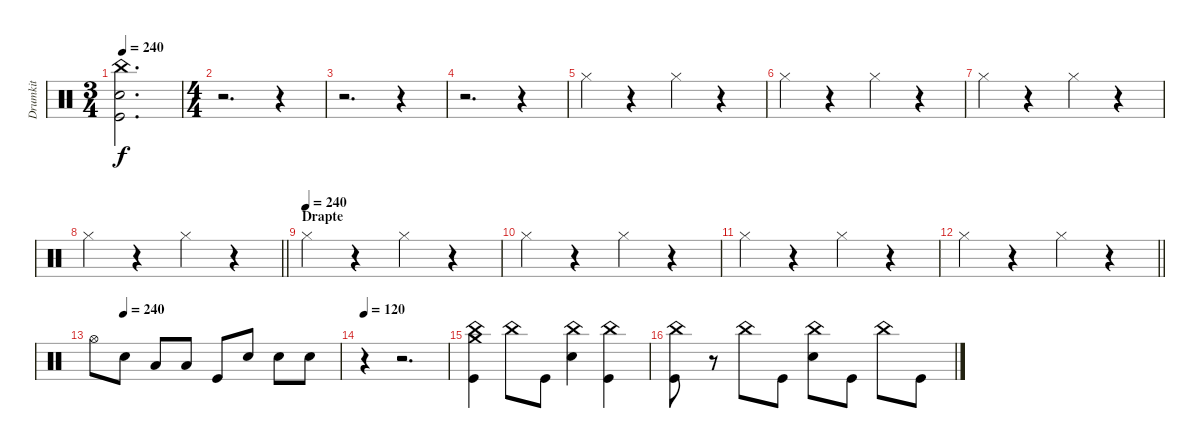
\track ("Drumkit" "Drumkit") {instrument percussion}
\staff {score}
\articulation defaults
\ts (3 4)
\tempo 240
\clef neutral
\ks c
("China (hit)" "Snare (hit) 2" "Kick (hit)").2{d dy f} |
\ts (4 4)
r.2{d} r.4 |
r.2{d} r.4 |
r.2{d} r.4 |
"Hi-Hat (closed)".4 r.4 "Hi-Hat (closed)".4 r.4 |
"Hi-Hat (closed)".4 r.4 "Hi-Hat (closed)".4 r.4 |
"Hi-Hat (closed)".4 r.4 "Hi-Hat (closed)".4 r.4 |
\barLineRight lightlight "Hi-Hat (closed)".4
r.4 "Hi-Hat (closed)".4 r.4 |
\section ("" "Drapte")
\tempo (240)
"Hi-Hat (closed)".4 r.4 "Hi-Hat (closed)".4 r.4 |
"Hi-Hat (closed)".4 r.4 "Hi-Hat (closed)".4 r.4 |
"Hi-Hat (closed)".4 r.4 "Hi-Hat (closed)".4 r.4 |
\barLineRight lightlight "Hi-Hat (closed)".4
r.4 "Hi-Hat (closed)".4 r.4 |
\tempo (240 0.125)
"Hi-Hat (open)".8 "Snare (hit) 2".8 "Low Tom (hit)".8 "Low Tom (hit)".8 "Kick (hit)".8 "Snare (hit) 2".8 "Snare (hit) 2".8 "Snare (hit) 2".8 |
\tempo 120
r.4 r.2{d} |
("Crash medium (hit)" "China (hit)" "Kick (hit)").4 "China (hit)".8 "Kick (hit)".8 ("China (hit)" "Snare (hit) 2").4 ("China (hit)" "Kick (hit)").4 |
("China (hit)" "Kick (hit)").8 r.8 "China (hit)".8 "Kick (hit)".8 ("China (hit)" "Snare (hit) 2").8 "Kick (hit)".8 "China (hit)".8 "Kick (hit)".8
